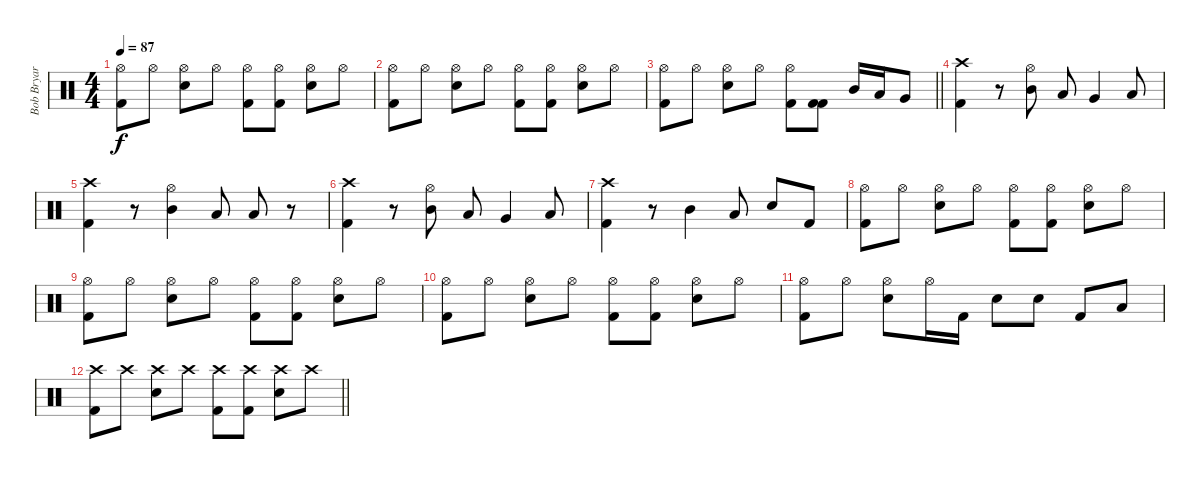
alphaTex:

\track ("Bob Bryar [Drums]" "Bob Bryar ") {instrument percussion}
\staff {score}
\articulation defaults
\ts (4 4)
\tempo 87
\clef neutral
\ks c
("Hi-Hat (open)" "Kick (hit) 2").8{dy f} "Hi-Hat (open)".8 ("Hi-Hat (open)" "Electric Snare (hit)").8 "Hi-Hat (open)".8 ("Hi-Hat (open)" "Kick (hit) 2").8 ("Hi-Hat (open)" "Kick (hit) 2").8 ("Hi-Hat (open)" "Electric Snare (hit)").8 "Hi-Hat (open)".8 |
("Hi-Hat (open)" "Kick (hit) 2").8 "Hi-Hat (open)".8 ("Hi-Hat (open)" "Electric Snare (hit)").8 "Hi-Hat (open)".8 ("Hi-Hat (open)" "Kick (hit) 2").8 ("Hi-Hat (open)" "Kick (hit) 2").8 ("Hi-Hat (open)" "Electric Snare (hit)").8 "Hi-Hat (open)".8 |
\barLineRight lightlight
("Hi-Hat (open)" "Kick (hit) 2").8 "Hi-Hat (open)".8 ("Hi-Hat (open)" "Electric Snare (hit)").8 "Hi-Hat (open)".8 ("Hi-Hat (open)" "Kick (hit) 2").8 ("Kick (hit) 2" "Kick (hit) 2").8 "Mid Tom (hit)".16 "Low Tom (hit)".16 "Very Low Tom (hit)".8 |
("Crash high (hit)" "Kick (hit) 2").4 r.8 ("Hi-Hat (open)" "Mid Tom (hit)").8 "Low Tom (hit)".8 "Very Low Tom (hit)".4 "Low Tom (hit)".8 |
("Crash high (hit)" "Kick (hit) 2").4 r.8 ("Hi-Hat (open)" "Mid Tom (hit)").4 "Low Tom (hit)".8 "Low Tom (hit)".8 r.8 |
("Crash high (hit)" "Kick (hit) 2").4 r.8 ("Hi-Hat (open)" "Mid Tom (hit)").8 "Low Tom (hit)".8 "Very Low Tom (hit)".4 "Low Tom (hit)".8 |
("Crash high (hit)" "Kick (hit) 2").4 r.8 "Mid Tom (hit)".4 "Low Tom (hit)".8 "Electric Snare (hit)".8 "Kick (hit) 2".8 |
("Hi-Hat (open)" "Kick (hit) 2").8 "Hi-Hat (open)".8 ("Hi-Hat (open)" "Electric Snare (hit)").8 "Hi-Hat (open)".8 ("Hi-Hat (open)" "Kick (hit) 2").8 ("Hi-Hat (open)" "Kick (hit) 2").8 ("Hi-Hat (open)" "Electric Snare (hit)").8 "Hi-Hat (open)".8 |
("Hi-Hat (open)" "Kick (hit) 2").8 "Hi-Hat (open)".8 ("Hi-Hat (open)" "Electric Snare (hit)").8 "Hi-Hat (open)".8 ("Hi-Hat (open)" "Kick (hit) 2").8 ("Hi-Hat (open)" "Kick (hit) 2").8 ("Hi-Hat (open)" "Electric Snare (hit)").8 "Hi-Hat (open)".8 |
("Hi-Hat (open)" "Kick (hit) 2").8 "Hi-Hat (open)".8 ("Hi-Hat (open)" "Electric Snare (hit)").8 "Hi-Hat (open)".8 ("Hi-Hat (open)" "Kick (hit) 2").8 ("Hi-Hat (open)" "Kick (hit) 2").8 ("Hi-Hat (open)" "Electric Snare (hit)").8 "Hi-Hat (open)".8 |
("Hi-Hat (open)" "Kick (hit) 2").8 "Hi-Hat (open)".8 ("Hi-Hat (open)" "Electric Snare (hit)").8 "Hi-Hat (open)".16 "Kick (hit) 2".16 "Electric Snare (hit)".8 "Electric Snare (hit)".8 "Kick (hit) 2".8 "Low Tom (hit)".8 |
\barLineRight lightlight
("Crash high (hit)" "Kick (hit) 2").8 "Crash high (hit)".8 ("Crash high (hit)" "Electric Snare (hit)").8 "Crash high (hit)".8 ("Crash high (hit)" "Kick (hit) 2").8 ("Crash high (hit)" "Kick (hit) 2").8 ("Crash high (hit)" "Electric Snare (hit)").8 "Crash high (hit)".8
